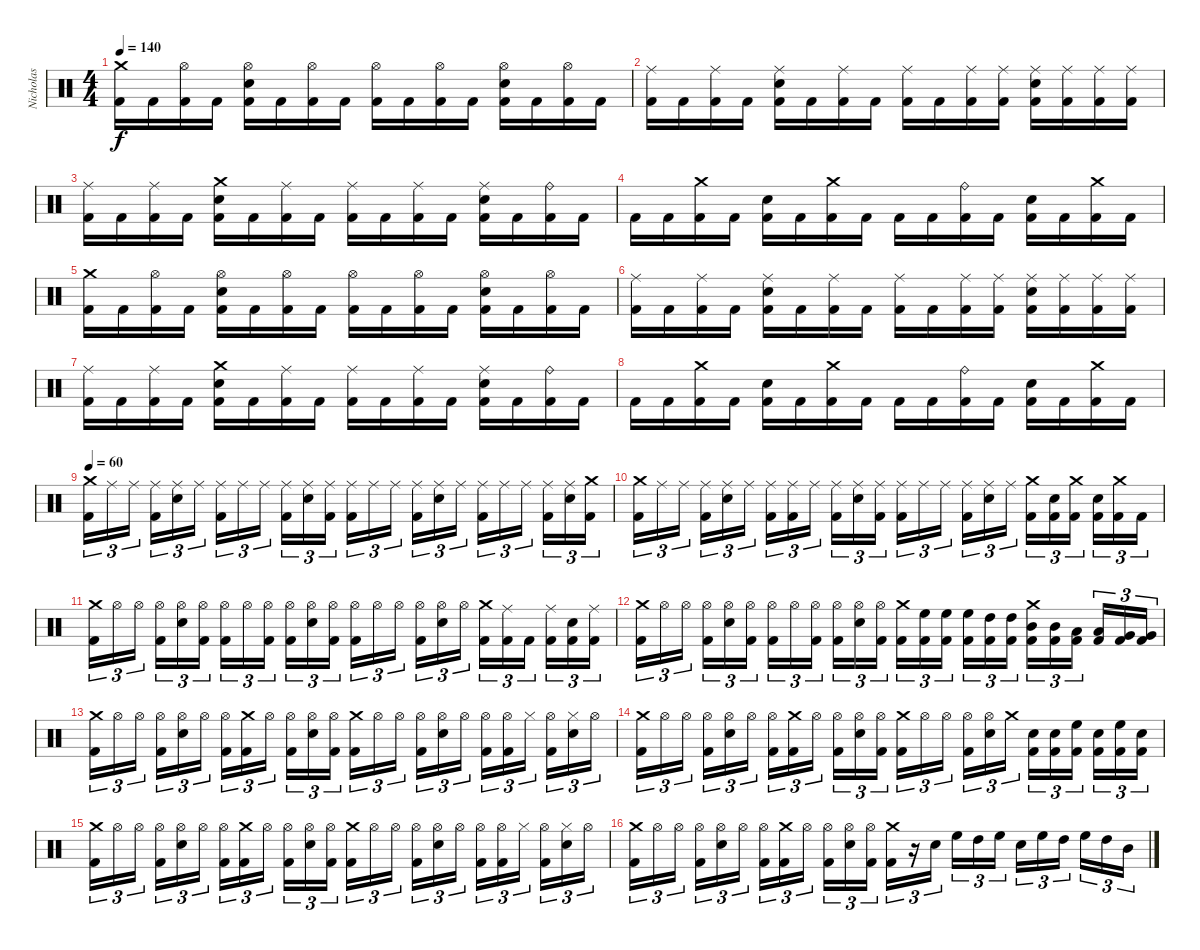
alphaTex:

\track ("Nicholas" "Nicholas") {instrument percussion}
\staff {score}
\articulation defaults
\ts (4 4)
\tempo 140
\clef neutral
\ks c
("Crash medium (hit)" "Kick (hit) 2").16{dy f} "Kick (hit) 2".16 ("Hi-Hat (open)" "Kick (hit) 2").16 "Kick (hit) 2".16 ("Hi-Hat (open)" "Snare (hit) 2" "Kick (hit) 2").16 "Kick (hit) 2".16 ("Hi-Hat (open)" "Kick (hit) 2").16 "Kick (hit) 2".16 ("Hi-Hat (open)" "Kick (hit) 2").16 "Kick (hit) 2".16 ("Hi-Hat (open)" "Kick (hit) 2").16 "Kick (hit) 2".16 ("Hi-Hat (open)" "Snare (hit) 2" "Kick (hit) 2").16 "Kick (hit) 2".16 ("Hi-Hat (open)" "Kick (hit) 2").16 "Kick (hit) 2".16 |
("Ride (middle)" "Kick (hit) 2").16 "Kick (hit) 2".16 ("Ride (middle)" "Kick (hit) 2").16 "Kick (hit) 2".16 ("Ride (middle)" "Snare (hit) 2" "Kick (hit) 2").16 "Kick (hit) 2".16 ("Ride (middle)" "Kick (hit) 2").16 "Kick (hit) 2".16 ("Ride (middle)" "Kick (hit) 2").16 "Kick (hit) 2".16 ("Ride (middle)" "Kick (hit) 2").16 ("Ride (middle)" "Kick (hit) 2").16 ("Ride (middle)" "Snare (hit) 2" "Kick (hit) 2").16 ("Ride (middle)" "Kick (hit) 2").16 ("Ride (middle)" "Kick (hit) 2").16 ("Ride (middle)" "Kick (hit) 2").16 |
("Ride (middle)" "Kick (hit) 2").16 "Kick (hit) 2".16 ("Ride (middle)" "Kick (hit) 2").16 "Kick (hit) 2".16 ("Crash medium (hit)" "Snare (hit) 2" "Kick (hit) 2").16 "Kick (hit) 2".16 ("Ride (middle)" "Kick (hit) 2").16 "Kick (hit) 2".16 ("Ride (middle)" "Kick (hit) 2").16 "Kick (hit) 2".16 ("Ride (middle)" "Kick (hit) 2").16 "Kick (hit) 2".16 ("Ride (middle)" "Snare (hit) 2" "Kick (hit) 2").16 "Kick (hit) 2".16 ("Ride (bell)" "Kick (hit) 2").16 "Kick (hit) 2".16 |
"Kick (hit) 2".16 "Kick (hit) 2".16 ("Crash medium (hit)" "Kick (hit) 2").16 "Kick (hit) 2".16 ("Snare (hit) 2" "Kick (hit) 2").16 "Kick (hit) 2".16 ("Crash medium (hit)" "Kick (hit) 2").16 "Kick (hit) 2".16 "Kick (hit) 2".16 "Kick (hit) 2".16 ("Ride (bell)" "Kick (hit) 2").16 "Kick (hit) 2".16 ("Snare (hit) 2" "Kick (hit) 2").16 "Kick (hit) 2".16 ("Crash medium (hit)" "Kick (hit) 2").16 "Kick (hit) 2".16 |
("Crash medium (hit)" "Kick (hit) 2").16 "Kick (hit) 2".16 ("Hi-Hat (open)" "Kick (hit) 2").16 "Kick (hit) 2".16 ("Hi-Hat (open)" "Snare (hit) 2" "Kick (hit) 2").16 "Kick (hit) 2".16 ("Hi-Hat (open)" "Kick (hit) 2").16 "Kick (hit) 2".16 ("Hi-Hat (open)" "Kick (hit) 2").16 "Kick (hit) 2".16 ("Hi-Hat (open)" "Kick (hit) 2").16 "Kick (hit) 2".16 ("Hi-Hat (open)" "Snare (hit) 2" "Kick (hit) 2").16 "Kick (hit) 2".16 ("Hi-Hat (open)" "Kick (hit) 2").16 "Kick (hit) 2".16 |
("Ride (middle)" "Kick (hit) 2").16 "Kick (hit) 2".16 ("Ride (middle)" "Kick (hit) 2").16 "Kick (hit) 2".16 ("Ride (middle)" "Snare (hit) 2" "Kick (hit) 2").16 "Kick (hit) 2".16 ("Ride (middle)" "Kick (hit) 2").16 "Kick (hit) 2".16 ("Ride (middle)" "Kick (hit) 2").16 "Kick (hit) 2".16 ("Ride (middle)" "Kick (hit) 2").16 ("Ride (middle)" "Kick (hit) 2").16 ("Ride (middle)" "Snare (hit) 2" "Kick (hit) 2").16 ("Ride (middle)" "Kick (hit) 2").16 ("Ride (middle)" "Kick (hit) 2").16 ("Ride (middle)" "Kick (hit) 2").16 |
("Ride (middle)" "Kick (hit) 2").16 "Kick (hit) 2".16 ("Ride (middle)" "Kick (hit) 2").16 "Kick (hit) 2".16 ("Crash medium (hit)" "Snare (hit) 2" "Kick (hit) 2").16 "Kick (hit) 2".16 ("Ride (middle)" "Kick (hit) 2").16 "Kick (hit) 2".16 ("Ride (middle)" "Kick (hit) 2").16 "Kick (hit) 2".16 ("Ride (middle)" "Kick (hit) 2").16 "Kick (hit) 2".16 ("Ride (middle)" "Snare (hit) 2" "Kick (hit) 2").16 "Kick (hit) 2".16 ("Ride (bell)" "Kick (hit) 2").16 "Kick (hit) 2".16 |
"Kick (hit) 2".16 "Kick (hit) 2".16 ("Crash medium (hit)" "Kick (hit) 2").16 "Kick (hit) 2".16 ("Snare (hit) 2" "Kick (hit) 2").16 "Kick (hit) 2".16 ("Crash medium (hit)" "Kick (hit) 2").16 "Kick (hit) 2".16 "Kick (hit) 2".16 "Kick (hit) 2".16 ("Ride (bell)" "Kick (hit) 2").16 "Kick (hit) 2".16 ("Snare (hit) 2" "Kick (hit) 2").16 "Kick (hit) 2".16 ("Crash medium (hit)" "Kick (hit) 2").16 "Kick (hit) 2".16 |
\tempo 60
("Crash medium (hit)" "Kick (hit) 2").16{tu (3 2)} "Ride (middle)".16{tu (3 2)} "Ride (middle)".16{tu (3 2)} ("Ride (middle)" "Kick (hit) 2").16{tu (3 2)} ("Ride (middle)" "Snare (hit) 2").16{tu (3 2)} "Ride (middle)".16{tu (3 2)} ("Ride (middle)" "Kick (hit) 2").16{tu (3 2)} "Ride (middle)".16{tu (3 2)} "Ride (middle)".16{tu (3 2)} ("Ride (middle)" "Kick (hit) 2").16{tu (3 2)} ("Ride (middle)" "Snare (hit) 2").16{tu (3 2)} ("Ride (middle)" "Kick (hit) 2").16{tu (3 2)} ("Ride (middle)" "Kick (hit) 2").16{tu (3 2)} "Ride (middle)".16{tu (3 2)} "Ride (middle)".16{tu (3 2)} ("Ride (middle)" "Kick (hit) 2").16{tu (3 2)} ("Ride (middle)" "Snare (hit) 2").16{tu (3 2)} "Ride (middle)".16{tu (3 2)} ("Ride (middle)" "Kick (hit) 2").16{tu (3 2)} "Ride (middle)".16{tu (3 2)} "Ride (middle)".16{tu (3 2)} ("Ride (middle)" "Kick (hit) 2").16{tu (3 2)} ("Ride (middle)" "Snare (hit) 2").16{tu (3 2)} ("Crash medium (hit)" "Kick (hit) 2").16{tu (3 2)} |
("Crash medium (hit)" "Kick (hit) 2").16{tu (3 2)} "Ride (middle)".16{tu (3 2)} "Ride (middle)".16{tu (3 2)} ("Ride (middle)" "Kick (hit) 2").16{tu (3 2)} ("Ride (middle)" "Snare (hit) 2").16{tu (3 2)} "Ride (middle)".16{tu (3 2)} ("Ride (middle)" "Kick (hit) 2").16{tu (3 2)} ("Ride (middle)" "Kick (hit) 2").16{tu (3 2)} "Ride (middle)".16{tu (3 2)} ("Ride (middle)" "Kick (hit) 2").16{tu (3 2)} ("Ride (middle)" "Snare (hit) 2").16{tu (3 2)} ("Ride (middle)" "Kick (hit) 2").16{tu (3 2)} ("Ride (middle)" "Kick (hit) 2").16{tu (3 2)} "Ride (middle)".16{tu (3 2)} "Ride (middle)".16{tu (3 2)} ("Ride (middle)" "Kick (hit) 2").16{tu (3 2)} ("Ride (middle)" "Snare (hit) 2").16{tu (3 2)} "Ride (middle)".16{tu (3 2)} ("Crash medium (hit)" "Kick (hit) 2").16{tu (3 2)} ("Snare (hit) 2" "Kick (hit) 2").16{tu (3 2)} ("Crash medium (hit)" "Kick (hit) 2").16{tu (3 2)} ("Snare (hit) 2" "Kick (hit) 2").16{tu (3 2)} ("Crash medium (hit)" "Kick (hit) 2").16{tu (3 2)} "Kick (hit) 2".16{tu (3 2)} |
("Crash medium (hit)" "Kick (hit) 2").16{tu (3 2)} "Hi-Hat (open)".16{tu (3 2)} "Hi-Hat (open)".16{tu (3 2)} ("Hi-Hat (open)" "Kick (hit) 2").16{tu (3 2)} ("Hi-Hat (open)" "Snare (hit) 2").16{tu (3 2)} ("Hi-Hat (open)" "Kick (hit) 2").16{tu (3 2)} ("Hi-Hat (open)" "Kick (hit) 2").16{tu (3 2)} "Hi-Hat (open)".16{tu (3 2)} ("Hi-Hat (open)" "Kick (hit) 2").16{tu (3 2)} ("Hi-Hat (open)" "Kick (hit) 2").16{tu (3 2)} ("Hi-Hat (open)" "Snare (hit) 2").16{tu (3 2)} ("Hi-Hat (open)" "Kick (hit) 2").16{tu (3 2)} ("Hi-Hat (open)" "Kick (hit) 2").16{tu (3 2)} "Hi-Hat (open)".16{tu (3 2)} "Hi-Hat (open)".16{tu (3 2)} ("Hi-Hat (open)" "Kick (hit) 2").16{tu (3 2)} ("Hi-Hat (open)" "Snare (hit) 2").16{tu (3 2)} "Hi-Hat (open)".16{tu (3 2)} ("Crash medium (hit)" "Kick (hit) 2").16{tu (3 2)} ("Ride (middle)" "Kick (hit) 2").16{tu (3 2)} "Kick (hit) 2".16{tu (3 2)} ("Ride (middle)" "Kick (hit) 2").16{tu (3 2)} ("Snare (hit) 2" "Kick (hit) 2").16{tu (3 2)} ("Ride (middle)" "Kick (hit) 2").16{tu (3 2)} |
("Crash medium (hit)" "Kick (hit) 2").16{tu (3 2)} "Hi-Hat (open)".16{tu (3 2)} "Hi-Hat (open)".16{tu (3 2)} ("Hi-Hat (open)" "Kick (hit) 2").16{tu (3 2)} ("Hi-Hat (open)" "Snare (hit) 2").16{tu (3 2)} ("Hi-Hat (open)" "Kick (hit) 2").16{tu (3 2)} ("Hi-Hat (open)" "Kick (hit) 2").16{tu (3 2)} "Hi-Hat (open)".16{tu (3 2)} ("Hi-Hat (open)" "Kick (hit) 2").16{tu (3 2)} ("Hi-Hat (open)" "Kick (hit) 2").16{tu (3 2)} ("Hi-Hat (open)" "Snare (hit) 2").16{tu (3 2)} ("Hi-Hat (open)" "Kick (hit) 2").16{tu (3 2)} ("Crash medium (hit)" "Kick (hit) 2").16{tu (3 2)} ("High Floor Tom (hit)" "Kick (hit) 2").16{tu (3 2)} ("High Floor Tom (hit)" "Kick (hit) 2").16{tu (3 2)} ("High Floor Tom (hit)" "Kick (hit) 2").16{tu (3 2)} ("High Tom (hit)" "Kick (hit) 2").16{tu (3 2)} ("High Tom (hit)" "Kick (hit) 2").16{tu (3 2)} ("Crash medium (hit)" "Mid Tom (hit)" "Kick (hit) 2").16{tu (3 2)} ("Mid Tom (hit)" "Kick (hit) 2").16{tu (3 2)} ("Low Tom (hit)" "Kick (hit) 2").16{tu (3 2)} ("Low Tom (hit)" "Kick (hit) 2").16{tu (3 2)} ("Very Low Tom (hit)" "Kick (hit) 2").16{tu (3 2)} ("Very Low Tom (hit)" "Kick (hit) 2").16{tu (3 2)} |
("Crash medium (hit)" "Kick (hit) 2").16{tu (3 2)} "Hi-Hat (open)".16{tu (3 2)} "Hi-Hat (open)".16{tu (3 2)} ("Hi-Hat (open)" "Kick (hit) 2").16{tu (3 2)} ("Hi-Hat (open)" "Snare (hit) 2").16{tu (3 2)} "Hi-Hat (open)".16{tu (3 2)} ("Hi-Hat (open)" "Kick (hit) 2").16{tu (3 2)} ("Crash medium (hit)" "Kick (hit) 2").16{tu (3 2)} "Hi-Hat (open)".16{tu (3 2)} ("Hi-Hat (open)" "Kick (hit) 2").16{tu (3 2)} ("Hi-Hat (open)" "Snare (hit) 2").16{tu (3 2)} ("Hi-Hat (open)" "Kick (hit) 2").16{tu (3 2)} ("Crash medium (hit)" "Kick (hit) 2").16{tu (3 2)} "Hi-Hat (open)".16{tu (3 2)} "Hi-Hat (open)".16{tu (3 2)} ("Hi-Hat (open)" "Kick (hit) 2").16{tu (3 2)} ("Hi-Hat (open)" "Snare (hit) 2").16{tu (3 2)} "Hi-Hat (open)".16{tu (3 2)} ("Hi-Hat (open)" "Kick (hit) 2").16{tu (3 2)} ("Hi-Hat (open)" "Kick (hit) 2").16{tu (3 2)} "Hi-Hat (closed)".16{tu (3 2)} ("Hi-Hat (open)" "Kick (hit) 2").16{tu (3 2)} ("Hi-Hat (closed)" "Snare (hit) 2").16{tu (3 2)} "Hi-Hat (open)".16{tu (3 2)} |
("Crash medium (hit)" "Kick (hit) 2").16{tu (3 2)} "Hi-Hat (open)".16{tu (3 2)} "Hi-Hat (open)".16{tu (3 2)} ("Hi-Hat (open)" "Kick (hit) 2").16{tu (3 2)} ("Hi-Hat (open)" "Snare (hit) 2").16{tu (3 2)} "Hi-Hat (open)".16{tu (3 2)} ("Hi-Hat (open)" "Kick (hit) 2").16{tu (3 2)} ("Crash medium (hit)" "Kick (hit) 2").16{tu (3 2)} "Hi-Hat (open)".16{tu (3 2)} ("Hi-Hat (open)" "Kick (hit) 2").16{tu (3 2)} ("Hi-Hat (open)" "Snare (hit) 2").16{tu (3 2)} ("Hi-Hat (open)" "Kick (hit) 2").16{tu (3 2)} ("Crash medium (hit)" "Kick (hit) 2").16{tu (3 2)} "Hi-Hat (open)".16{tu (3 2)} "Hi-Hat (open)".16{tu (3 2)} ("Hi-Hat (open)" "Kick (hit) 2").16{tu (3 2)} ("Hi-Hat (open)" "Snare (hit) 2").16{tu (3 2)} "Crash medium (hit)".16{tu (3 2)} ("Snare (hit) 2" "Kick (hit) 2").16{tu (3 2)} ("Snare (hit) 2" "Kick (hit) 2").16{tu (3 2)} ("High Floor Tom (hit)" "Kick (hit) 2").16{tu (3 2)} ("Snare (hit) 2" "Kick (hit) 2").16{tu (3 2)} ("High Floor Tom (hit)" "Kick (hit) 2").16{tu (3 2)} ("Snare (hit) 2" "Kick (hit) 2").16{tu (3 2)} |
("Crash medium (hit)" "Kick (hit) 2").16{tu (3 2)} "Hi-Hat (open)".16{tu (3 2)} "Hi-Hat (open)".16{tu (3 2)} ("Hi-Hat (open)" "Kick (hit) 2").16{tu (3 2)} ("Hi-Hat (open)" "Snare (hit) 2").16{tu (3 2)} "Hi-Hat (open)".16{tu (3 2)} ("Hi-Hat (open)" "Kick (hit) 2").16{tu (3 2)} ("Crash medium (hit)" "Kick (hit) 2").16{tu (3 2)} "Hi-Hat (open)".16{tu (3 2)} ("Hi-Hat (open)" "Kick (hit) 2").16{tu (3 2)} ("Hi-Hat (open)" "Snare (hit) 2").16{tu (3 2)} ("Hi-Hat (open)" "Kick (hit) 2").16{tu (3 2)} ("Crash medium (hit)" "Kick (hit) 2").16{tu (3 2)} "Hi-Hat (open)".16{tu (3 2)} "Hi-Hat (open)".16{tu (3 2)} ("Hi-Hat (open)" "Kick (hit) 2").16{tu (3 2)} ("Hi-Hat (open)" "Snare (hit) 2").16{tu (3 2)} "Hi-Hat (open)".16{tu (3 2)} ("Hi-Hat (open)" "Kick (hit) 2").16{tu (3 2)} ("Hi-Hat (open)" "Kick (hit) 2").16{tu (3 2)} "Hi-Hat (closed)".16{tu (3 2)} ("Hi-Hat (open)" "Kick (hit) 2").16{tu (3 2)} ("Hi-Hat (closed)" "Snare (hit) 2").16{tu (3 2)} "Hi-Hat (open)".16{tu (3 2)} |
("Crash medium (hit)" "Kick (hit) 2").16{tu (3 2)} "Hi-Hat (open)".16{tu (3 2)} "Hi-Hat (open)".16{tu (3 2)} ("Hi-Hat (open)" "Kick (hit) 2").16{tu (3 2)} ("Hi-Hat (open)" "Snare (hit) 2").16{tu (3 2)} "Hi-Hat (open)".16{tu (3 2)} ("Hi-Hat (open)" "Kick (hit) 2").16{tu (3 2)} ("Crash medium (hit)" "Kick (hit) 2").16{tu (3 2)} "Hi-Hat (open)".16{tu (3 2)} ("Hi-Hat (open)" "Kick (hit) 2").16{tu (3 2)} ("Hi-Hat (open)" "Snare (hit) 2").16{tu (3 2)} ("Hi-Hat (open)" "Kick (hit) 2").16{tu (3 2)} ("Crash medium (hit)" "Kick (hit) 2").16{tu (3 2)} r.16{tu (3 2)} "Snare (hit) 2".16{tu (3 2)} "High Floor Tom (hit)".16{tu (3 2)} "High Tom (hit)".16{tu (3 2)} "High Floor Tom (hit)".16{tu (3 2)} "Snare (hit) 2".16{tu (3 2)} "High Floor Tom (hit)".16{tu (3 2)} "High Tom (hit)".16{tu (3 2)} "High Floor Tom (hit)".16{tu (3 2)} "High Tom (hit)".16{tu (3 2)} "Mid Tom (hit)".16{tu (3 2)}
